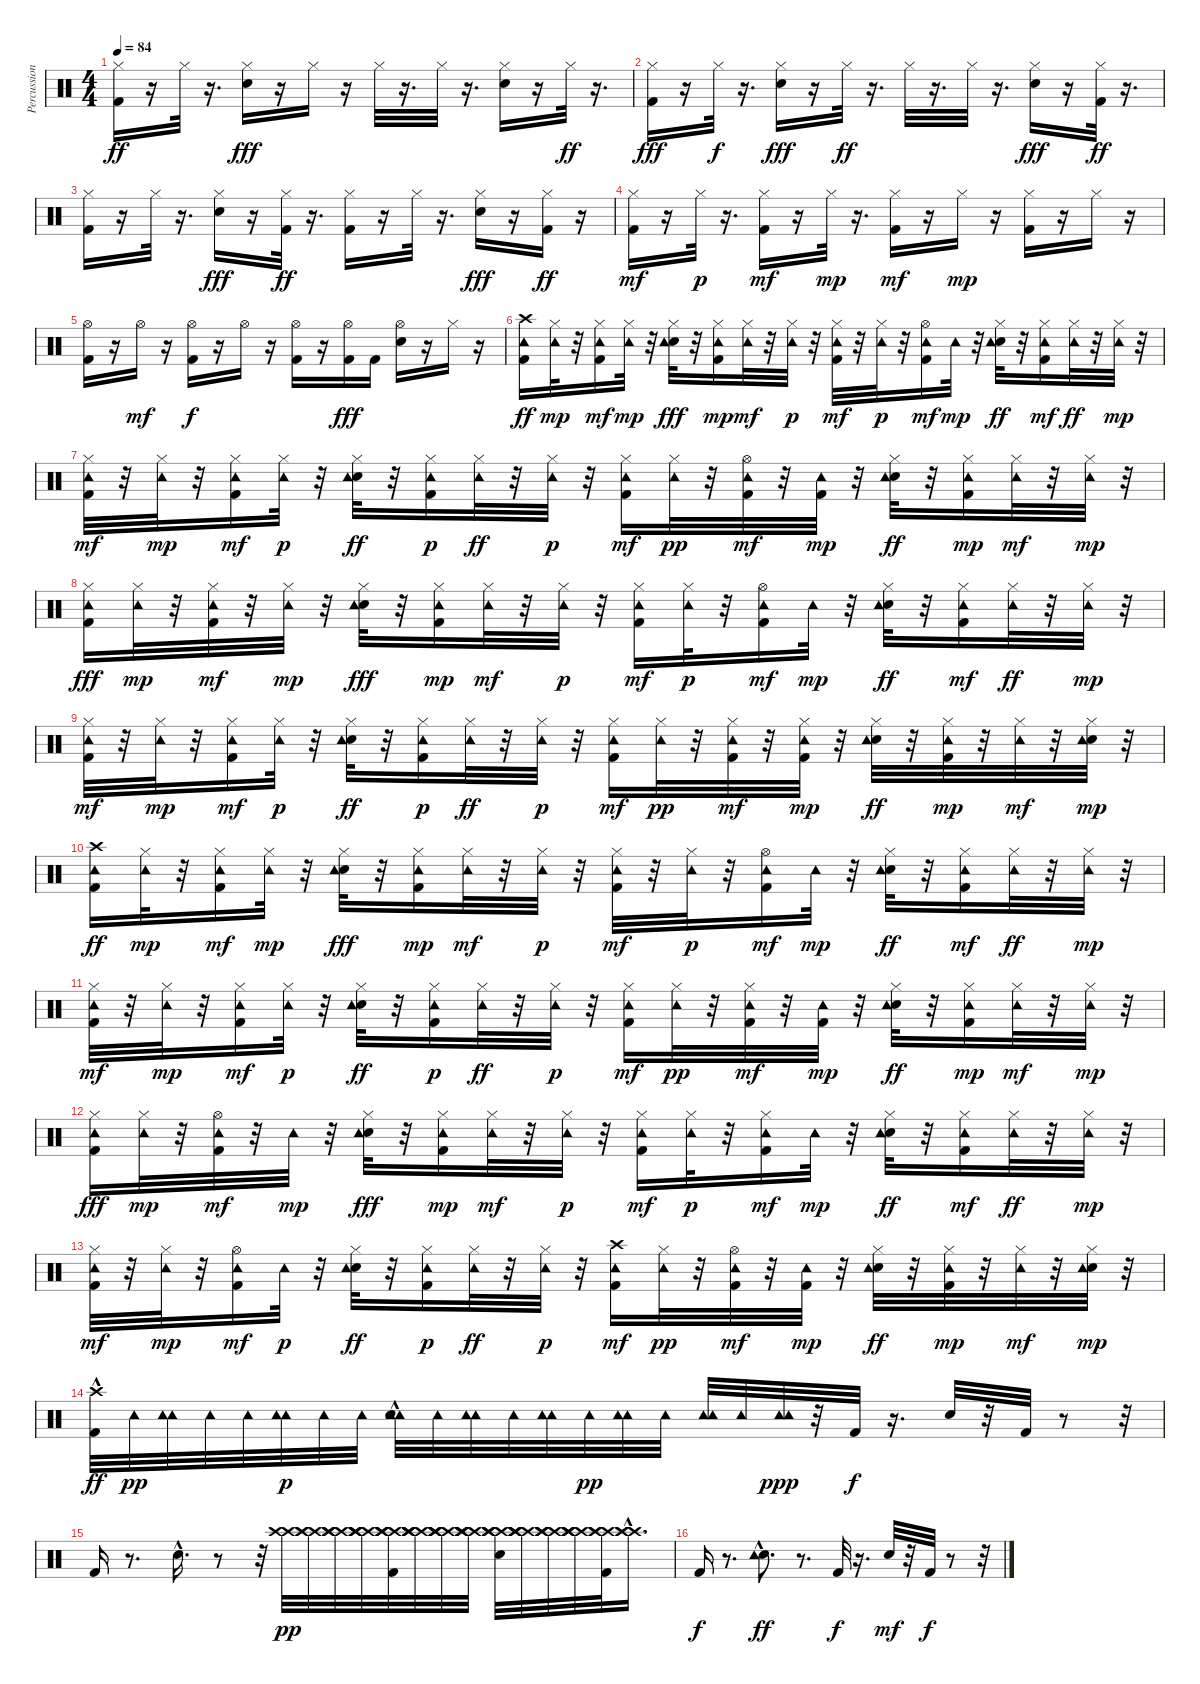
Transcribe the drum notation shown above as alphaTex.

\track ("Percussions" "Percussion") {instrument percussion}
\staff {score}
\articulation defaults
\ts (4 4)
\tempo 84
\clef neutral
\ks c
("Hi-Hat (closed)" "Kick (hit) 2").16{dy ff} r.16 "Hi-Hat (closed)".32 r.16{d} ("Snare (hit) 2" "Hi-Hat (closed)").16{dy fff} r.16 "Hi-Hat (closed)".16 r.16 "Hi-Hat (closed)".32 r.16{d} "Hi-Hat (closed)".32 r.16{d} ("Snare (hit) 2" "Hi-Hat (closed)").16 r.16 "Hi-Hat (closed)".32{dy ff} r.16{d} |
("Kick (hit) 2" "Hi-Hat (closed)").16{dy fff} r.16 "Hi-Hat (closed)".32{dy f} r.16{d} ("Snare (hit) 2" "Hi-Hat (closed)").16{dy fff} r.16 "Hi-Hat (closed)".32{dy ff} r.16{d} "Hi-Hat (closed)".32 r.16{d} "Hi-Hat (closed)".32 r.16{d} ("Snare (hit) 2" "Hi-Hat (closed)").16{dy fff} r.16 ("Hi-Hat (closed)" "Kick (hit) 2").32{dy ff} r.16{d} |
("Hi-Hat (closed)" "Kick (hit) 2").16 r.16 "Hi-Hat (closed)".32 r.16{d} ("Snare (hit) 2" "Hi-Hat (closed)").16{dy fff} r.16 ("Kick (hit) 2" "Hi-Hat (closed)").32{dy ff} r.16{d} ("Kick (hit) 2" "Hi-Hat (closed)").16 r.16 "Hi-Hat (closed)".32 r.16{d} ("Snare (hit) 2" "Hi-Hat (closed)").16{dy fff} r.16 ("Kick (hit) 2" "Hi-Hat (closed)").16{dy ff} r.16 |
("Hi-Hat (closed)" "Kick (hit) 2").16{dy mf} r.16 "Hi-Hat (closed)".32{dy p} r.16{d} ("Hi-Hat (closed)" "Kick (hit) 2").16{dy mf} r.16 "Hi-Hat (closed)".32{dy mp} r.16{d} ("Hi-Hat (closed)" "Kick (hit) 2").16{dy mf} r.16 "Hi-Hat (closed)".16{dy mp} r.16 ("Hi-Hat (closed)" "Kick (hit) 2").16 r.16 "Hi-Hat (closed)".16 r.16 |
("Hi-Hat (open)" "Kick (hit) 2").16 r.16 "Hi-Hat (open)".16{dy mf} r.16 ("Hi-Hat (open)" "Kick (hit) 2").16{dy f} r.16 "Hi-Hat (open)".16 r.16 ("Hi-Hat (open)" "Kick (hit) 2").16 r.16 ("Hi-Hat (open)" "Kick (hit) 2").16{dy fff} "Kick (hit) 2".16 ("Hi-Hat (open)" "Snare (hit) 2").16 r.16 "Hi-Hat (closed)".16 r.16 |
("Crash high (hit)" "Kick (hit) 2" "Tambourine (hit)").16{dy ff} ("Hi-Hat (closed)" "Tambourine (hit)").32{dy mp} r.32 ("Hi-Hat (closed)" "Kick (hit) 2" "Tambourine (hit)").16{dy mf} ("Hi-Hat (closed)" "Tambourine (hit)").32{dy mp} r.32 ("Hi-Hat (closed)" "Snare (hit) 2" "Tambourine (hit)").32{dy fff} r.32 ("Hi-Hat (closed)" "Kick (hit) 2" "Tambourine (hit)").16{dy mp} ("Hi-Hat (closed)" "Tambourine (hit)").32{dy mf} r.32 ("Hi-Hat (closed)" "Tambourine (hit)").32{dy p} r.32 ("Kick (hit) 2" "Hi-Hat (closed)" "Tambourine (hit)").32{dy mf} r.32 ("Hi-Hat (closed)" "Tambourine (hit)").32{dy p} r.32 ("Hi-Hat (open)" "Kick (hit) 2" "Tambourine (hit)").16{dy mf} "Tambourine (hit)".32{dy mp} r.32 ("Hi-Hat (closed)" "Snare (hit) 2" "Tambourine (hit)").32{dy ff} r.32 ("Hi-Hat (closed)" "Kick (hit) 2" "Tambourine (hit)").16{dy mf} ("Hi-Hat (closed)" "Tambourine (hit)").32{dy ff} r.32 ("Hi-Hat (closed)" "Tambourine (hit)").32{dy mp} r.32 |
("Hi-Hat (closed)" "Kick (hit) 2" "Tambourine (hit)").32{dy mf} r.32 ("Hi-Hat (closed)" "Tambourine (hit)").32{dy mp} r.32 ("Hi-Hat (closed)" "Kick (hit) 2" "Tambourine (hit)").16{dy mf} ("Hi-Hat (closed)" "Tambourine (hit)").32{dy p} r.32 ("Hi-Hat (closed)" "Snare (hit) 2" "Tambourine (hit)").32{dy ff} r.32 ("Kick (hit) 2" "Hi-Hat (closed)" "Tambourine (hit)").16{dy p} ("Hi-Hat (closed)" "Tambourine (hit)").32{dy ff} r.32 ("Hi-Hat (closed)" "Tambourine (hit)").32{dy p} r.32 ("Kick (hit) 2" "Hi-Hat (closed)" "Tambourine (hit)").16{dy mf} ("Hi-Hat (closed)" "Tambourine (hit)").32{dy pp} r.32 ("Hi-Hat (open)" "Kick (hit) 2" "Tambourine (hit)").32{dy mf} r.32 ("Kick (hit) 2" "Tambourine (hit)").32{dy mp} r.32 ("Snare (hit) 2" "Hi-Hat (closed)" "Tambourine (hit)").32{dy ff} r.32 ("Kick (hit) 2" "Hi-Hat (closed)" "Tambourine (hit)").16{dy mp} ("Hi-Hat (closed)" "Tambourine (hit)").32{dy mf} r.32 ("Hi-Hat (closed)" "Tambourine (hit)").32{dy mp} r.32 |
("Kick (hit) 2" "Hi-Hat (closed)" "Tambourine (hit)").16{dy fff} ("Hi-Hat (closed)" "Tambourine (hit)").32{dy mp} r.32 ("Kick (hit) 2" "Hi-Hat (closed)" "Tambourine (hit)").32{dy mf} r.32 ("Hi-Hat (closed)" "Tambourine (hit)").32{dy mp} r.32 ("Snare (hit) 2" "Hi-Hat (closed)" "Tambourine (hit)").32{dy fff} r.32 ("Kick (hit) 2" "Hi-Hat (closed)" "Tambourine (hit)").16{dy mp} ("Hi-Hat (closed)" "Tambourine (hit)").32{dy mf} r.32 ("Hi-Hat (closed)" "Tambourine (hit)").32{dy p} r.32 ("Kick (hit) 2" "Hi-Hat (closed)" "Tambourine (hit)").16{dy mf} ("Hi-Hat (closed)" "Tambourine (hit)").32{dy p} r.32 ("Hi-Hat (open)" "Kick (hit) 2" "Tambourine (hit)").16{dy mf} "Tambourine (hit)".32{dy mp} r.32 ("Hi-Hat (closed)" "Snare (hit) 2" "Tambourine (hit)").32{dy ff} r.32 ("Kick (hit) 2" "Hi-Hat (closed)" "Tambourine (hit)").16{dy mf} ("Hi-Hat (closed)" "Tambourine (hit)").32{dy ff} r.32 ("Hi-Hat (closed)" "Tambourine (hit)").32{dy mp} r.32 |
("Kick (hit) 2" "Hi-Hat (closed)" "Tambourine (hit)").32{dy mf} r.32 ("Hi-Hat (closed)" "Tambourine (hit)").32{dy mp} r.32 ("Kick (hit) 2" "Hi-Hat (closed)" "Tambourine (hit)").16{dy mf} ("Hi-Hat (closed)" "Tambourine (hit)").32{dy p} r.32 ("Hi-Hat (closed)" "Snare (hit) 2" "Tambourine (hit)").32{dy ff} r.32 ("Hi-Hat (closed)" "Kick (hit) 2" "Tambourine (hit)").16{dy p} ("Hi-Hat (closed)" "Tambourine (hit)").32{dy ff} r.32 ("Hi-Hat (closed)" "Tambourine (hit)").32{dy p} r.32 ("Kick (hit) 2" "Hi-Hat (closed)" "Tambourine (hit)").16{dy mf} ("Hi-Hat (closed)" "Tambourine (hit)").32{dy pp} r.32 ("Kick (hit) 2" "Hi-Hat (closed)" "Tambourine (hit)").32{dy mf} r.32 ("Kick (hit) 2" "Hi-Hat (closed)" "Tambourine (hit)").32{dy mp} r.32 ("Snare (hit) 2" "Hi-Hat (closed)" "Tambourine (hit)").32{dy ff} r.32 ("Kick (hit) 2" "Hi-Hat (closed)" "Tambourine (hit)").32{dy mp} r.32 ("Hi-Hat (closed)" "Tambourine (hit)").32{dy mf} r.32 ("Hi-Hat (closed)" "Snare (hit) 2" "Tambourine (hit)").32{dy mp} r.32 |
("Crash high (hit)" "Kick (hit) 2" "Tambourine (hit)").16{dy ff} ("Hi-Hat (closed)" "Tambourine (hit)").32{dy mp} r.32 ("Hi-Hat (closed)" "Kick (hit) 2" "Tambourine (hit)").16{dy mf} ("Hi-Hat (closed)" "Tambourine (hit)").32{dy mp} r.32 ("Hi-Hat (closed)" "Snare (hit) 2" "Tambourine (hit)").32{dy fff} r.32 ("Hi-Hat (closed)" "Kick (hit) 2" "Tambourine (hit)").16{dy mp} ("Hi-Hat (closed)" "Tambourine (hit)").32{dy mf} r.32 ("Hi-Hat (closed)" "Tambourine (hit)").32{dy p} r.32 ("Kick (hit) 2" "Hi-Hat (closed)" "Tambourine (hit)").32{dy mf} r.32 ("Hi-Hat (closed)" "Tambourine (hit)").32{dy p} r.32 ("Hi-Hat (open)" "Kick (hit) 2" "Tambourine (hit)").16{dy mf} "Tambourine (hit)".32{dy mp} r.32 ("Hi-Hat (closed)" "Snare (hit) 2" "Tambourine (hit)").32{dy ff} r.32 ("Hi-Hat (closed)" "Kick (hit) 2" "Tambourine (hit)").16{dy mf} ("Hi-Hat (closed)" "Tambourine (hit)").32{dy ff} r.32 ("Hi-Hat (closed)" "Tambourine (hit)").32{dy mp} r.32 |
("Hi-Hat (closed)" "Kick (hit) 2" "Tambourine (hit)").32{dy mf} r.32 ("Hi-Hat (closed)" "Tambourine (hit)").32{dy mp} r.32 ("Hi-Hat (closed)" "Kick (hit) 2" "Tambourine (hit)").16{dy mf} ("Hi-Hat (closed)" "Tambourine (hit)").32{dy p} r.32 ("Hi-Hat (closed)" "Snare (hit) 2" "Tambourine (hit)").32{dy ff} r.32 ("Kick (hit) 2" "Hi-Hat (closed)" "Tambourine (hit)").16{dy p} ("Hi-Hat (closed)" "Tambourine (hit)").32{dy ff} r.32 ("Hi-Hat (closed)" "Tambourine (hit)").32{dy p} r.32 ("Kick (hit) 2" "Hi-Hat (closed)" "Tambourine (hit)").16{dy mf} ("Hi-Hat (closed)" "Tambourine (hit)").32{dy pp} r.32 ("Hi-Hat (closed)" "Kick (hit) 2" "Tambourine (hit)").32{dy mf} r.32 ("Kick (hit) 2" "Tambourine (hit)").32{dy mp} r.32 ("Snare (hit) 2" "Hi-Hat (closed)" "Tambourine (hit)").32{dy ff} r.32 ("Kick (hit) 2" "Hi-Hat (closed)" "Tambourine (hit)").16{dy mp} ("Hi-Hat (closed)" "Tambourine (hit)").32{dy mf} r.32 ("Hi-Hat (closed)" "Tambourine (hit)").32{dy mp} r.32 |
("Kick (hit) 2" "Hi-Hat (closed)" "Tambourine (hit)").16{dy fff} ("Hi-Hat (closed)" "Tambourine (hit)").32{dy mp} r.32 ("Hi-Hat (open)" "Kick (hit) 2" "Tambourine (hit)").32{dy mf} r.32 "Tambourine (hit)".32{dy mp} r.32 ("Snare (hit) 2" "Hi-Hat (closed)" "Tambourine (hit)").32{dy fff} r.32 ("Kick (hit) 2" "Hi-Hat (closed)" "Tambourine (hit)").16{dy mp} ("Hi-Hat (closed)" "Tambourine (hit)").32{dy mf} r.32 ("Hi-Hat (closed)" "Tambourine (hit)").32{dy p} r.32 ("Kick (hit) 2" "Hi-Hat (closed)" "Tambourine (hit)").16{dy mf} ("Hi-Hat (closed)" "Tambourine (hit)").32{dy p} r.32 ("Hi-Hat (closed)" "Kick (hit) 2" "Tambourine (hit)").16{dy mf} "Tambourine (hit)".32{dy mp} r.32 ("Hi-Hat (closed)" "Snare (hit) 2" "Tambourine (hit)").32{dy ff} r.32 ("Kick (hit) 2" "Hi-Hat (closed)" "Tambourine (hit)").16{dy mf} ("Hi-Hat (closed)" "Tambourine (hit)").32{dy ff} r.32 ("Hi-Hat (closed)" "Tambourine (hit)").32{dy mp} r.32 |
("Kick (hit) 2" "Hi-Hat (closed)" "Tambourine (hit)").32{dy mf} r.32 ("Hi-Hat (closed)" "Tambourine (hit)").32{dy mp} r.32 ("Hi-Hat (open)" "Kick (hit) 2" "Tambourine (hit)").16{dy mf} "Tambourine (hit)".32{dy p} r.32 ("Hi-Hat (closed)" "Snare (hit) 2" "Tambourine (hit)").32{dy ff} r.32 ("Hi-Hat (closed)" "Kick (hit) 2" "Tambourine (hit)").16{dy p} ("Hi-Hat (closed)" "Tambourine (hit)").32{dy ff} r.32 ("Hi-Hat (closed)" "Tambourine (hit)").32{dy p} r.32 ("Crash high (hit)" "Kick (hit) 2" "Tambourine (hit)").16{dy mf} ("Hi-Hat (closed)" "Tambourine (hit)").32{dy pp} r.32 ("Hi-Hat (open)" "Kick (hit) 2" "Tambourine (hit)").32{dy mf} r.32 ("Kick (hit) 2" "Tambourine (hit)").32{dy mp} r.32 ("Snare (hit) 2" "Hi-Hat (closed)" "Tambourine (hit)").32{dy ff} r.32 ("Kick (hit) 2" "Hi-Hat (closed)" "Tambourine (hit)").32{dy mp} r.32 ("Hi-Hat (closed)" "Tambourine (hit)").32{dy mf} r.32 ("Hi-Hat (closed)" "Snare (hit) 2" "Tambourine (hit)").32{dy mp} r.32 |
("Crash high (hit)"{hac} "Kick (hit) 2"{hac}).32{dy ff} "Tambourine (hit)".32{dy pp} ("Tambourine (hit)" "Tambourine (hit)").32 "Tambourine (hit)".32 "Tambourine (hit)".32 ("Tambourine (hit)" "Tambourine (hit)").32{dy p} "Tambourine (hit)".32 "Tambourine (hit)".32 ("Tambourine (hit)" "Snare (hit) 2"{hac} "Tambourine (hit)").32 "Tambourine (hit)".32 ("Tambourine (hit)" "Tambourine (hit)").32 "Tambourine (hit)".32 ("Tambourine (hit)" "Tambourine (hit)").32 "Tambourine (hit)".32{dy pp} ("Tambourine (hit)" "Tambourine (hit)").32 "Tambourine (hit)".32 ("Tambourine (hit)" "Tambourine (hit)").32 "Tambourine (hit)".32 ("Tambourine (hit)" "Tambourine (hit)").32{dy ppp} r.32 "Kick (hit) 2".32{dy f} r.16{d} "Snare (hit) 2".32 r.32 "Kick (hit) 2".32 r.8 r.32 |
"Kick (hit) 2".16 r.8{d} "Snare (hit) 2"{hac}.16{d} r.8 r.32 ("Crash high (hit)" "Crash high (hit)").32{dy pp} ("Crash high (hit)" "Crash high (hit)" "Crash high (hit)").32 ("Crash high (hit)" "Crash high (hit)" "Crash high (hit)" "Crash high (hit)").32 ("Crash high (hit)" "Crash high (hit)" "Crash high (hit)" "Crash high (hit)" "Crash high (hit)").32 ("Crash high (hit)" "Crash high (hit)" "Kick (hit) 2" "Crash high (hit)" "Crash high (hit)").32 ("Crash high (hit)" "Crash high (hit)" "Crash high (hit)" "Crash high (hit)" "Crash high (hit)").32 ("Crash high (hit)" "Crash high (hit)" "Crash high (hit)" "Crash high (hit)" "Crash high (hit)").32 ("Crash high (hit)" "Crash high (hit)" "Crash high (hit)" "Crash high (hit)" "Crash high (hit)" "Crash high (hit)").32 ("Crash high (hit)" "Crash high (hit)" "Crash high (hit)" "Snare (hit) 2" "Crash high (hit)").32 ("Crash high (hit)" "Crash high (hit)" "Crash high (hit)" "Crash high (hit)" "Crash high (hit)").32 ("Crash high (hit)" "Crash high (hit)" "Crash high (hit)" "Crash high (hit)").32 ("Crash high (hit)" "Crash high (hit)" "Crash high (hit)" "Crash high (hit)" "Crash high (hit)").32 ("Crash high (hit)" "Kick (hit) 2" "Crash high (hit)" "Crash high (hit)").32 ("Crash high (hit)"{hac} "Crash high (hit)"{hac} "Crash high (hit)").16{d} |
"Kick (hit) 2".16{dy f} r.8{d} ("Snare (hit) 2" "Tambourine (hit)"{hac}).8{d dy ff} r.8{d} "Kick (hit) 2".32{dy f} r.16{d} "Snare (hit) 2".32{dy mf} r.32 "Kick (hit) 2".32{dy f} r.8 r.32
